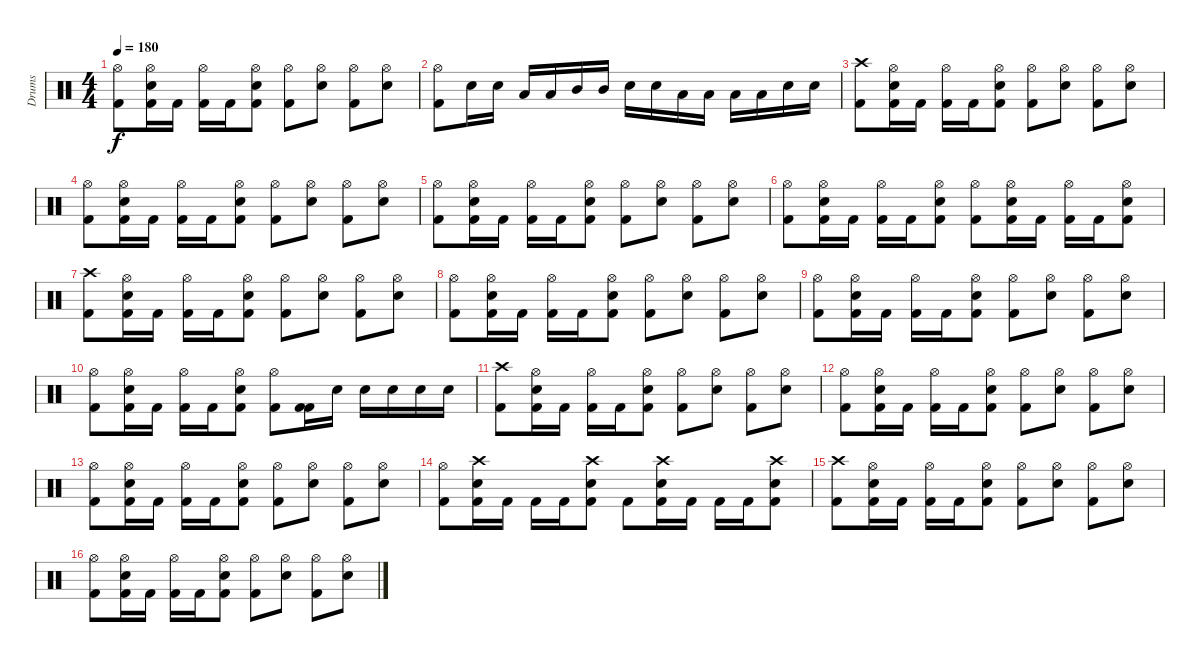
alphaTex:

\track ("Drums" "Drums") {instrument percussion}
\staff {score}
\articulation defaults
\ts (4 4)
\tempo 180
\clef neutral
\ks c
("Kick (hit) 2" "Hi-Hat (open)").8{dy f} ("Kick (hit) 2" "Snare (hit) 2" "Hi-Hat (open)").16 "Kick (hit) 2".16 ("Kick (hit) 2" "Hi-Hat (open)").16 "Kick (hit) 2".16 ("Kick (hit) 2" "Snare (hit) 2" "Hi-Hat (open)").8 ("Hi-Hat (open)" "Kick (hit) 2").8 ("Snare (hit) 2" "Hi-Hat (open)").8 ("Hi-Hat (open)" "Kick (hit) 2").8 ("Snare (hit) 2" "Hi-Hat (open)").8 |
("Hi-Hat (open)" "Kick (hit) 2").8 "Snare (hit) 2".16 "Snare (hit) 2".16 "Low Tom (hit)".16 "Low Tom (hit)".16 "Mid Tom (hit)".16 "Mid Tom (hit)".16 "Snare (hit) 2".16 "Snare (hit) 2".16 "Low Tom (hit)".16 "Low Tom (hit)".16 "Low Tom (hit)".16 "Low Tom (hit)".16 "Snare (hit) 2".16 "Snare (hit) 2".16 |
("Kick (hit) 2" "Crash high (hit)").8 ("Kick (hit) 2" "Snare (hit) 2" "Hi-Hat (open)").16 "Kick (hit) 2".16 ("Kick (hit) 2" "Hi-Hat (open)").16 "Kick (hit) 2".16 ("Kick (hit) 2" "Snare (hit) 2" "Hi-Hat (open)").8 ("Hi-Hat (open)" "Kick (hit) 2").8 ("Snare (hit) 2" "Hi-Hat (open)").8 ("Hi-Hat (open)" "Kick (hit) 2").8 ("Snare (hit) 2" "Hi-Hat (open)").8 |
("Kick (hit) 2" "Hi-Hat (open)").8 ("Kick (hit) 2" "Snare (hit) 2" "Hi-Hat (open)").16 "Kick (hit) 2".16 ("Kick (hit) 2" "Hi-Hat (open)").16 "Kick (hit) 2".16 ("Kick (hit) 2" "Snare (hit) 2" "Hi-Hat (open)").8 ("Hi-Hat (open)" "Kick (hit) 2").8 ("Snare (hit) 2" "Hi-Hat (open)").8 ("Hi-Hat (open)" "Kick (hit) 2").8 ("Snare (hit) 2" "Hi-Hat (open)").8 |
("Kick (hit) 2" "Hi-Hat (open)").8 ("Kick (hit) 2" "Snare (hit) 2" "Hi-Hat (open)").16 "Kick (hit) 2".16 ("Kick (hit) 2" "Hi-Hat (open)").16 "Kick (hit) 2".16 ("Kick (hit) 2" "Snare (hit) 2" "Hi-Hat (open)").8 ("Hi-Hat (open)" "Kick (hit) 2").8 ("Snare (hit) 2" "Hi-Hat (open)").8 ("Hi-Hat (open)" "Kick (hit) 2").8 ("Snare (hit) 2" "Hi-Hat (open)").8 |
("Kick (hit) 2" "Hi-Hat (open)").8 ("Kick (hit) 2" "Snare (hit) 2" "Hi-Hat (open)").16 "Kick (hit) 2".16 ("Kick (hit) 2" "Hi-Hat (open)").16 "Kick (hit) 2".16 ("Kick (hit) 2" "Snare (hit) 2" "Hi-Hat (open)").8 ("Hi-Hat (open)" "Kick (hit) 2").8 ("Kick (hit) 2" "Snare (hit) 2" "Hi-Hat (open)").16 "Kick (hit) 2".16 ("Kick (hit) 2" "Hi-Hat (open)").16 "Kick (hit) 2".16 ("Hi-Hat (open)" "Kick (hit) 2" "Snare (hit) 2").8 |
("Kick (hit) 2" "Crash high (hit)").8 ("Kick (hit) 2" "Snare (hit) 2" "Hi-Hat (open)").16 "Kick (hit) 2".16 ("Kick (hit) 2" "Hi-Hat (open)").16 "Kick (hit) 2".16 ("Kick (hit) 2" "Snare (hit) 2" "Hi-Hat (open)").8 ("Hi-Hat (open)" "Kick (hit) 2").8 ("Snare (hit) 2" "Hi-Hat (open)").8 ("Hi-Hat (open)" "Kick (hit) 2").8 ("Snare (hit) 2" "Hi-Hat (open)").8 |
("Kick (hit) 2" "Hi-Hat (open)").8 ("Kick (hit) 2" "Snare (hit) 2" "Hi-Hat (open)").16 "Kick (hit) 2".16 ("Kick (hit) 2" "Hi-Hat (open)").16 "Kick (hit) 2".16 ("Kick (hit) 2" "Snare (hit) 2" "Hi-Hat (open)").8 ("Hi-Hat (open)" "Kick (hit) 2").8 ("Snare (hit) 2" "Hi-Hat (open)").8 ("Hi-Hat (open)" "Kick (hit) 2").8 ("Snare (hit) 2" "Hi-Hat (open)").8 |
("Kick (hit) 2" "Hi-Hat (open)").8 ("Kick (hit) 2" "Snare (hit) 2" "Hi-Hat (open)").16 "Kick (hit) 2".16 ("Kick (hit) 2" "Hi-Hat (open)").16 "Kick (hit) 2".16 ("Kick (hit) 2" "Snare (hit) 2" "Hi-Hat (open)").8 ("Hi-Hat (open)" "Kick (hit) 2").8 ("Snare (hit) 2" "Hi-Hat (open)").8 ("Hi-Hat (open)" "Kick (hit) 2").8 ("Snare (hit) 2" "Hi-Hat (open)").8 |
("Kick (hit) 2" "Hi-Hat (open)").8 ("Kick (hit) 2" "Snare (hit) 2" "Hi-Hat (open)").16 "Kick (hit) 2".16 ("Kick (hit) 2" "Hi-Hat (open)").16 "Kick (hit) 2".16 ("Kick (hit) 2" "Snare (hit) 2" "Hi-Hat (open)").8 ("Hi-Hat (open)" "Kick (hit) 2").8 ("Kick (hit) 2" "Kick (hit) 2").16 "Snare (hit) 2".16 "Snare (hit) 2".16 "Snare (hit) 2".16 "Snare (hit) 2".16 "Snare (hit) 2".16 |
("Kick (hit) 2" "Crash high (hit)").8 ("Kick (hit) 2" "Snare (hit) 2" "Hi-Hat (open)").16 "Kick (hit) 2".16 ("Kick (hit) 2" "Hi-Hat (open)").16 "Kick (hit) 2".16 ("Kick (hit) 2" "Snare (hit) 2" "Hi-Hat (open)").8 ("Hi-Hat (open)" "Kick (hit) 2").8 ("Snare (hit) 2" "Hi-Hat (open)").8 ("Hi-Hat (open)" "Kick (hit) 2").8 ("Snare (hit) 2" "Hi-Hat (open)").8 |
("Kick (hit) 2" "Hi-Hat (open)").8 ("Kick (hit) 2" "Snare (hit) 2" "Hi-Hat (open)").16 "Kick (hit) 2".16 ("Kick (hit) 2" "Hi-Hat (open)").16 "Kick (hit) 2".16 ("Kick (hit) 2" "Snare (hit) 2" "Hi-Hat (open)").8 ("Hi-Hat (open)" "Kick (hit) 2").8 ("Snare (hit) 2" "Hi-Hat (open)").8 ("Hi-Hat (open)" "Kick (hit) 2").8 ("Snare (hit) 2" "Hi-Hat (open)").8 |
("Kick (hit) 2" "Hi-Hat (open)").8 ("Kick (hit) 2" "Snare (hit) 2" "Hi-Hat (open)").16 "Kick (hit) 2".16 ("Kick (hit) 2" "Hi-Hat (open)").16 "Kick (hit) 2".16 ("Kick (hit) 2" "Snare (hit) 2" "Hi-Hat (open)").8 ("Hi-Hat (open)" "Kick (hit) 2").8 ("Snare (hit) 2" "Hi-Hat (open)").8 ("Hi-Hat (open)" "Kick (hit) 2").8 ("Snare (hit) 2" "Hi-Hat (open)").8 |
("Kick (hit) 2" "Hi-Hat (open)").8 ("Kick (hit) 2" "Snare (hit) 2" "Crash high (hit)").16 "Kick (hit) 2".16 "Kick (hit) 2".16 "Kick (hit) 2".16 ("Kick (hit) 2" "Snare (hit) 2" "Crash high (hit)").8 "Kick (hit) 2".8 ("Kick (hit) 2" "Snare (hit) 2" "Crash high (hit)").16 "Kick (hit) 2".16 "Kick (hit) 2".16 "Kick (hit) 2".16 ("Crash high (hit)" "Kick (hit) 2" "Snare (hit) 2").8 |
("Kick (hit) 2" "Crash high (hit)").8 ("Kick (hit) 2" "Snare (hit) 2" "Hi-Hat (open)").16 "Kick (hit) 2".16 ("Kick (hit) 2" "Hi-Hat (open)").16 "Kick (hit) 2".16 ("Kick (hit) 2" "Snare (hit) 2" "Hi-Hat (open)").8 ("Hi-Hat (open)" "Kick (hit) 2").8 ("Snare (hit) 2" "Hi-Hat (open)").8 ("Hi-Hat (open)" "Kick (hit) 2").8 ("Snare (hit) 2" "Hi-Hat (open)").8 |
("Kick (hit) 2" "Hi-Hat (open)").8 ("Kick (hit) 2" "Snare (hit) 2" "Hi-Hat (open)").16 "Kick (hit) 2".16 ("Kick (hit) 2" "Hi-Hat (open)").16 "Kick (hit) 2".16 ("Kick (hit) 2" "Snare (hit) 2" "Hi-Hat (open)").8 ("Hi-Hat (open)" "Kick (hit) 2").8 ("Snare (hit) 2" "Hi-Hat (open)").8 ("Hi-Hat (open)" "Kick (hit) 2").8 ("Snare (hit) 2" "Hi-Hat (open)").8
